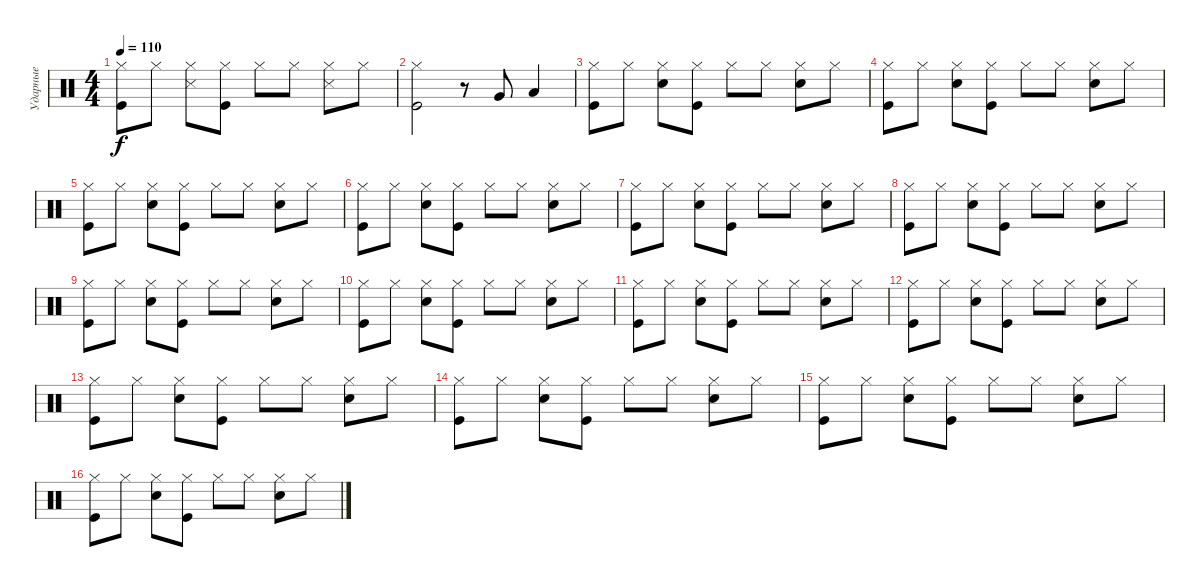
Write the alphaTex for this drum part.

\track ("Ударные" "Ударные") {instrument percussion}
\staff {score}
\articulation defaults
\ts (4 4)
\tempo 110
\clef neutral
\ks c
("Hi-Hat (closed)" "Kick (hit)").8{dy f} "Hi-Hat (closed)".8 ("Hi-Hat (closed)" "Snare (side stick) 3").8 ("Hi-Hat (closed)" "Kick (hit)").8 "Hi-Hat (closed)".8 "Hi-Hat (closed)".8 ("Hi-Hat (closed)" "Snare (side stick) 3").8 "Hi-Hat (closed)".8 |
("Hi-Hat (closed)" "Kick (hit)").2 r.8 "Very Low Tom (hit)".8 "Low Floor Tom (hit)".4 |
("Hi-Hat (closed)" "Kick (hit)").8 "Hi-Hat (closed)".8 ("Hi-Hat (closed)" "Snare (hit) 2").8 ("Hi-Hat (closed)" "Kick (hit)").8 "Hi-Hat (closed)".8 "Hi-Hat (closed)".8 ("Hi-Hat (closed)" "Snare (hit) 2").8 "Hi-Hat (closed)".8 |
("Hi-Hat (closed)" "Kick (hit)").8 "Hi-Hat (closed)".8 ("Hi-Hat (closed)" "Snare (hit) 2").8 ("Hi-Hat (closed)" "Kick (hit)").8 "Hi-Hat (closed)".8 "Hi-Hat (closed)".8 ("Hi-Hat (closed)" "Snare (hit) 2").8 "Hi-Hat (closed)".8 |
("Hi-Hat (closed)" "Kick (hit)").8 "Hi-Hat (closed)".8 ("Hi-Hat (closed)" "Snare (hit) 2").8 ("Hi-Hat (closed)" "Kick (hit)").8 "Hi-Hat (closed)".8 "Hi-Hat (closed)".8 ("Hi-Hat (closed)" "Snare (hit) 2").8 "Hi-Hat (closed)".8 |
("Hi-Hat (closed)" "Kick (hit)").8 "Hi-Hat (closed)".8 ("Hi-Hat (closed)" "Snare (hit) 2").8 ("Hi-Hat (closed)" "Kick (hit)").8 "Hi-Hat (closed)".8 "Hi-Hat (closed)".8 ("Hi-Hat (closed)" "Snare (hit) 2").8 "Hi-Hat (closed)".8 |
("Hi-Hat (closed)" "Kick (hit)").8 "Hi-Hat (closed)".8 ("Hi-Hat (closed)" "Snare (hit) 2").8 ("Hi-Hat (closed)" "Kick (hit)").8 "Hi-Hat (closed)".8 "Hi-Hat (closed)".8 ("Hi-Hat (closed)" "Snare (hit) 2").8 "Hi-Hat (closed)".8 |
("Hi-Hat (closed)" "Kick (hit)").8 "Hi-Hat (closed)".8 ("Hi-Hat (closed)" "Snare (hit) 2").8 ("Hi-Hat (closed)" "Kick (hit)").8 "Hi-Hat (closed)".8 "Hi-Hat (closed)".8 ("Hi-Hat (closed)" "Snare (hit) 2").8 "Hi-Hat (closed)".8 |
("Hi-Hat (closed)" "Kick (hit)").8 "Hi-Hat (closed)".8 ("Hi-Hat (closed)" "Snare (hit) 2").8 ("Hi-Hat (closed)" "Kick (hit)").8 "Hi-Hat (closed)".8 "Hi-Hat (closed)".8 ("Hi-Hat (closed)" "Snare (hit) 2").8 "Hi-Hat (closed)".8 |
("Hi-Hat (closed)" "Kick (hit)").8 "Hi-Hat (closed)".8 ("Hi-Hat (closed)" "Snare (hit) 2").8 ("Hi-Hat (closed)" "Kick (hit)").8 "Hi-Hat (closed)".8 "Hi-Hat (closed)".8 ("Hi-Hat (closed)" "Snare (hit) 2").8 "Hi-Hat (closed)".8 |
("Hi-Hat (closed)" "Kick (hit)").8 "Hi-Hat (closed)".8 ("Hi-Hat (closed)" "Snare (hit) 2").8 ("Hi-Hat (closed)" "Kick (hit)").8 "Hi-Hat (closed)".8 "Hi-Hat (closed)".8 ("Hi-Hat (closed)" "Snare (hit) 2").8 "Hi-Hat (closed)".8 |
("Hi-Hat (closed)" "Kick (hit)").8 "Hi-Hat (closed)".8 ("Hi-Hat (closed)" "Snare (hit) 2").8 ("Hi-Hat (closed)" "Kick (hit)").8 "Hi-Hat (closed)".8 "Hi-Hat (closed)".8 ("Hi-Hat (closed)" "Snare (hit) 2").8 "Hi-Hat (closed)".8 |
("Hi-Hat (closed)" "Kick (hit)").8 "Hi-Hat (closed)".8 ("Hi-Hat (closed)" "Snare (hit) 2").8 ("Hi-Hat (closed)" "Kick (hit)").8 "Hi-Hat (closed)".8 "Hi-Hat (closed)".8 ("Hi-Hat (closed)" "Snare (hit) 2").8 "Hi-Hat (closed)".8 |
("Hi-Hat (closed)" "Kick (hit)").8 "Hi-Hat (closed)".8 ("Hi-Hat (closed)" "Snare (hit) 2").8 ("Hi-Hat (closed)" "Kick (hit)").8 "Hi-Hat (closed)".8 "Hi-Hat (closed)".8 ("Hi-Hat (closed)" "Snare (hit) 2").8 "Hi-Hat (closed)".8 |
("Hi-Hat (closed)" "Kick (hit)").8 "Hi-Hat (closed)".8 ("Hi-Hat (closed)" "Snare (hit) 2").8 ("Hi-Hat (closed)" "Kick (hit)").8 "Hi-Hat (closed)".8 "Hi-Hat (closed)".8 ("Hi-Hat (closed)" "Snare (hit) 2").8 "Hi-Hat (closed)".8 |
("Hi-Hat (closed)" "Kick (hit)").8 "Hi-Hat (closed)".8 ("Hi-Hat (closed)" "Snare (hit) 2").8 ("Hi-Hat (closed)" "Kick (hit)").8 "Hi-Hat (closed)".8 "Hi-Hat (closed)".8 ("Hi-Hat (closed)" "Snare (hit) 2").8 "Hi-Hat (closed)".8
